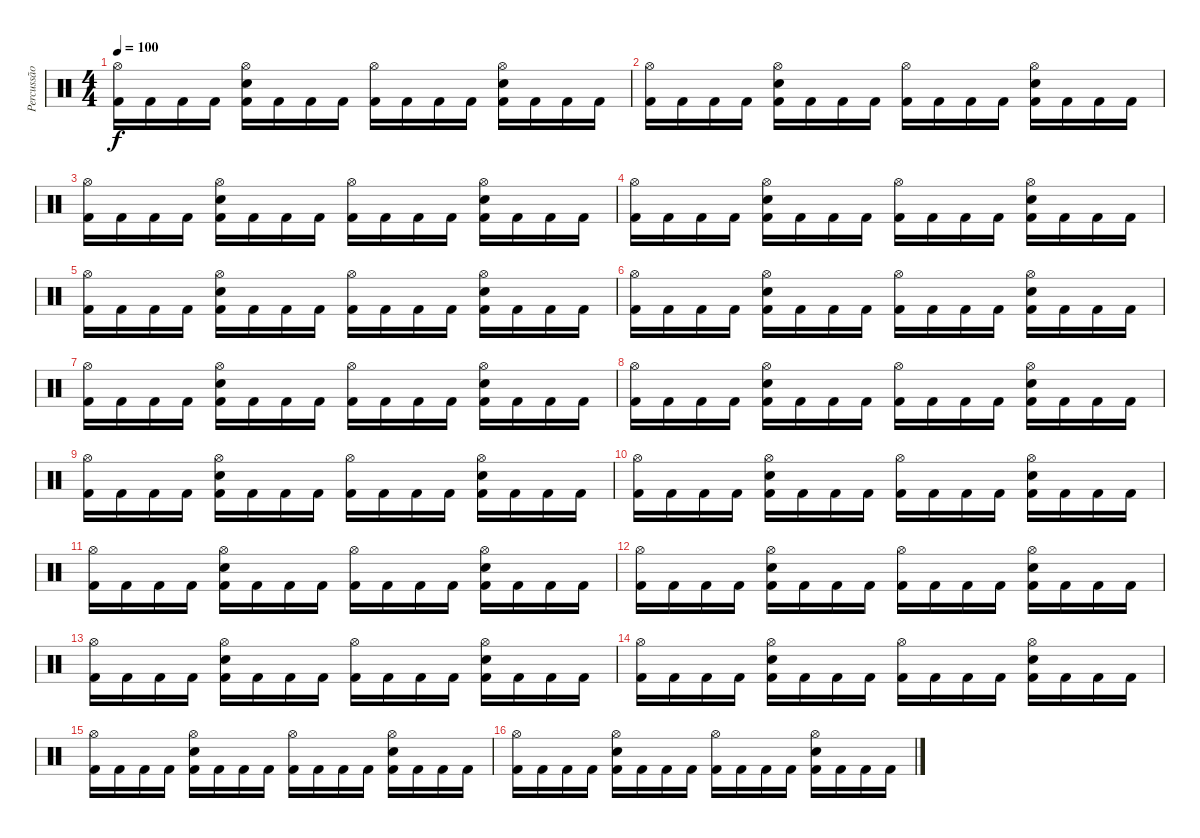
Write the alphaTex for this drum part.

\track ("Percussão" "Percussão") {instrument percussion}
\staff {score}
\articulation defaults
\ts (4 4)
\tempo 100
\clef neutral
\ks c
("Hi-Hat (open)" "Kick (hit) 2").16{dy f} "Kick (hit) 2".16 "Kick (hit) 2".16 "Kick (hit) 2".16 ("Hi-Hat (open)" "Electric Snare (hit)" "Kick (hit) 2").16 "Kick (hit) 2".16 "Kick (hit) 2".16 "Kick (hit) 2".16 ("Hi-Hat (open)" "Kick (hit) 2").16 "Kick (hit) 2".16 "Kick (hit) 2".16 "Kick (hit) 2".16 ("Hi-Hat (open)" "Electric Snare (hit)" "Kick (hit) 2").16 "Kick (hit) 2".16 "Kick (hit) 2".16 "Kick (hit) 2".16 |
("Hi-Hat (open)" "Kick (hit) 2").16 "Kick (hit) 2".16 "Kick (hit) 2".16 "Kick (hit) 2".16 ("Hi-Hat (open)" "Electric Snare (hit)" "Kick (hit) 2").16 "Kick (hit) 2".16 "Kick (hit) 2".16 "Kick (hit) 2".16 ("Hi-Hat (open)" "Kick (hit) 2").16 "Kick (hit) 2".16 "Kick (hit) 2".16 "Kick (hit) 2".16 ("Hi-Hat (open)" "Electric Snare (hit)" "Kick (hit) 2").16 "Kick (hit) 2".16 "Kick (hit) 2".16 "Kick (hit) 2".16 |
("Hi-Hat (open)" "Kick (hit) 2").16 "Kick (hit) 2".16 "Kick (hit) 2".16 "Kick (hit) 2".16 ("Hi-Hat (open)" "Electric Snare (hit)" "Kick (hit) 2").16 "Kick (hit) 2".16 "Kick (hit) 2".16 "Kick (hit) 2".16 ("Hi-Hat (open)" "Kick (hit) 2").16 "Kick (hit) 2".16 "Kick (hit) 2".16 "Kick (hit) 2".16 ("Hi-Hat (open)" "Electric Snare (hit)" "Kick (hit) 2").16 "Kick (hit) 2".16 "Kick (hit) 2".16 "Kick (hit) 2".16 |
("Hi-Hat (open)" "Kick (hit) 2").16 "Kick (hit) 2".16 "Kick (hit) 2".16 "Kick (hit) 2".16 ("Hi-Hat (open)" "Electric Snare (hit)" "Kick (hit) 2").16 "Kick (hit) 2".16 "Kick (hit) 2".16 "Kick (hit) 2".16 ("Hi-Hat (open)" "Kick (hit) 2").16 "Kick (hit) 2".16 "Kick (hit) 2".16 "Kick (hit) 2".16 ("Hi-Hat (open)" "Electric Snare (hit)" "Kick (hit) 2").16 "Kick (hit) 2".16 "Kick (hit) 2".16 "Kick (hit) 2".16 |
("Hi-Hat (open)" "Kick (hit) 2").16 "Kick (hit) 2".16 "Kick (hit) 2".16 "Kick (hit) 2".16 ("Hi-Hat (open)" "Electric Snare (hit)" "Kick (hit) 2").16 "Kick (hit) 2".16 "Kick (hit) 2".16 "Kick (hit) 2".16 ("Hi-Hat (open)" "Kick (hit) 2").16 "Kick (hit) 2".16 "Kick (hit) 2".16 "Kick (hit) 2".16 ("Hi-Hat (open)" "Electric Snare (hit)" "Kick (hit) 2").16 "Kick (hit) 2".16 "Kick (hit) 2".16 "Kick (hit) 2".16 |
("Hi-Hat (open)" "Kick (hit) 2").16 "Kick (hit) 2".16 "Kick (hit) 2".16 "Kick (hit) 2".16 ("Hi-Hat (open)" "Electric Snare (hit)" "Kick (hit) 2").16 "Kick (hit) 2".16 "Kick (hit) 2".16 "Kick (hit) 2".16 ("Hi-Hat (open)" "Kick (hit) 2").16 "Kick (hit) 2".16 "Kick (hit) 2".16 "Kick (hit) 2".16 ("Hi-Hat (open)" "Electric Snare (hit)" "Kick (hit) 2").16 "Kick (hit) 2".16 "Kick (hit) 2".16 "Kick (hit) 2".16 |
("Hi-Hat (open)" "Kick (hit) 2").16 "Kick (hit) 2".16 "Kick (hit) 2".16 "Kick (hit) 2".16 ("Hi-Hat (open)" "Electric Snare (hit)" "Kick (hit) 2").16 "Kick (hit) 2".16 "Kick (hit) 2".16 "Kick (hit) 2".16 ("Hi-Hat (open)" "Kick (hit) 2").16 "Kick (hit) 2".16 "Kick (hit) 2".16 "Kick (hit) 2".16 ("Hi-Hat (open)" "Electric Snare (hit)" "Kick (hit) 2").16 "Kick (hit) 2".16 "Kick (hit) 2".16 "Kick (hit) 2".16 |
("Hi-Hat (open)" "Kick (hit) 2").16 "Kick (hit) 2".16 "Kick (hit) 2".16 "Kick (hit) 2".16 ("Hi-Hat (open)" "Electric Snare (hit)" "Kick (hit) 2").16 "Kick (hit) 2".16 "Kick (hit) 2".16 "Kick (hit) 2".16 ("Hi-Hat (open)" "Kick (hit) 2").16 "Kick (hit) 2".16 "Kick (hit) 2".16 "Kick (hit) 2".16 ("Hi-Hat (open)" "Electric Snare (hit)" "Kick (hit) 2").16 "Kick (hit) 2".16 "Kick (hit) 2".16 "Kick (hit) 2".16 |
("Hi-Hat (open)" "Kick (hit) 2").16 "Kick (hit) 2".16 "Kick (hit) 2".16 "Kick (hit) 2".16 ("Hi-Hat (open)" "Electric Snare (hit)" "Kick (hit) 2").16 "Kick (hit) 2".16 "Kick (hit) 2".16 "Kick (hit) 2".16 ("Hi-Hat (open)" "Kick (hit) 2").16 "Kick (hit) 2".16 "Kick (hit) 2".16 "Kick (hit) 2".16 ("Hi-Hat (open)" "Electric Snare (hit)" "Kick (hit) 2").16 "Kick (hit) 2".16 "Kick (hit) 2".16 "Kick (hit) 2".16 |
("Hi-Hat (open)" "Kick (hit) 2").16 "Kick (hit) 2".16 "Kick (hit) 2".16 "Kick (hit) 2".16 ("Hi-Hat (open)" "Electric Snare (hit)" "Kick (hit) 2").16 "Kick (hit) 2".16 "Kick (hit) 2".16 "Kick (hit) 2".16 ("Hi-Hat (open)" "Kick (hit) 2").16 "Kick (hit) 2".16 "Kick (hit) 2".16 "Kick (hit) 2".16 ("Hi-Hat (open)" "Electric Snare (hit)" "Kick (hit) 2").16 "Kick (hit) 2".16 "Kick (hit) 2".16 "Kick (hit) 2".16 |
("Hi-Hat (open)" "Kick (hit) 2").16 "Kick (hit) 2".16 "Kick (hit) 2".16 "Kick (hit) 2".16 ("Hi-Hat (open)" "Electric Snare (hit)" "Kick (hit) 2").16 "Kick (hit) 2".16 "Kick (hit) 2".16 "Kick (hit) 2".16 ("Hi-Hat (open)" "Kick (hit) 2").16 "Kick (hit) 2".16 "Kick (hit) 2".16 "Kick (hit) 2".16 ("Hi-Hat (open)" "Electric Snare (hit)" "Kick (hit) 2").16 "Kick (hit) 2".16 "Kick (hit) 2".16 "Kick (hit) 2".16 |
("Hi-Hat (open)" "Kick (hit) 2").16 "Kick (hit) 2".16 "Kick (hit) 2".16 "Kick (hit) 2".16 ("Hi-Hat (open)" "Electric Snare (hit)" "Kick (hit) 2").16 "Kick (hit) 2".16 "Kick (hit) 2".16 "Kick (hit) 2".16 ("Hi-Hat (open)" "Kick (hit) 2").16 "Kick (hit) 2".16 "Kick (hit) 2".16 "Kick (hit) 2".16 ("Hi-Hat (open)" "Electric Snare (hit)" "Kick (hit) 2").16 "Kick (hit) 2".16 "Kick (hit) 2".16 "Kick (hit) 2".16 |
("Hi-Hat (open)" "Kick (hit) 2").16 "Kick (hit) 2".16 "Kick (hit) 2".16 "Kick (hit) 2".16 ("Hi-Hat (open)" "Electric Snare (hit)" "Kick (hit) 2").16 "Kick (hit) 2".16 "Kick (hit) 2".16 "Kick (hit) 2".16 ("Hi-Hat (open)" "Kick (hit) 2").16 "Kick (hit) 2".16 "Kick (hit) 2".16 "Kick (hit) 2".16 ("Hi-Hat (open)" "Electric Snare (hit)" "Kick (hit) 2").16 "Kick (hit) 2".16 "Kick (hit) 2".16 "Kick (hit) 2".16 |
("Hi-Hat (open)" "Kick (hit) 2").16 "Kick (hit) 2".16 "Kick (hit) 2".16 "Kick (hit) 2".16 ("Hi-Hat (open)" "Electric Snare (hit)" "Kick (hit) 2").16 "Kick (hit) 2".16 "Kick (hit) 2".16 "Kick (hit) 2".16 ("Hi-Hat (open)" "Kick (hit) 2").16 "Kick (hit) 2".16 "Kick (hit) 2".16 "Kick (hit) 2".16 ("Hi-Hat (open)" "Electric Snare (hit)" "Kick (hit) 2").16 "Kick (hit) 2".16 "Kick (hit) 2".16 "Kick (hit) 2".16 |
("Hi-Hat (open)" "Kick (hit) 2").16 "Kick (hit) 2".16 "Kick (hit) 2".16 "Kick (hit) 2".16 ("Hi-Hat (open)" "Electric Snare (hit)" "Kick (hit) 2").16 "Kick (hit) 2".16 "Kick (hit) 2".16 "Kick (hit) 2".16 ("Hi-Hat (open)" "Kick (hit) 2").16 "Kick (hit) 2".16 "Kick (hit) 2".16 "Kick (hit) 2".16 ("Hi-Hat (open)" "Electric Snare (hit)" "Kick (hit) 2").16 "Kick (hit) 2".16 "Kick (hit) 2".16 "Kick (hit) 2".16 |
("Hi-Hat (open)" "Kick (hit) 2").16 "Kick (hit) 2".16 "Kick (hit) 2".16 "Kick (hit) 2".16 ("Hi-Hat (open)" "Electric Snare (hit)" "Kick (hit) 2").16 "Kick (hit) 2".16 "Kick (hit) 2".16 "Kick (hit) 2".16 ("Hi-Hat (open)" "Kick (hit) 2").16 "Kick (hit) 2".16 "Kick (hit) 2".16 "Kick (hit) 2".16 ("Hi-Hat (open)" "Electric Snare (hit)" "Kick (hit) 2").16 "Kick (hit) 2".16 "Kick (hit) 2".16 "Kick (hit) 2".16
